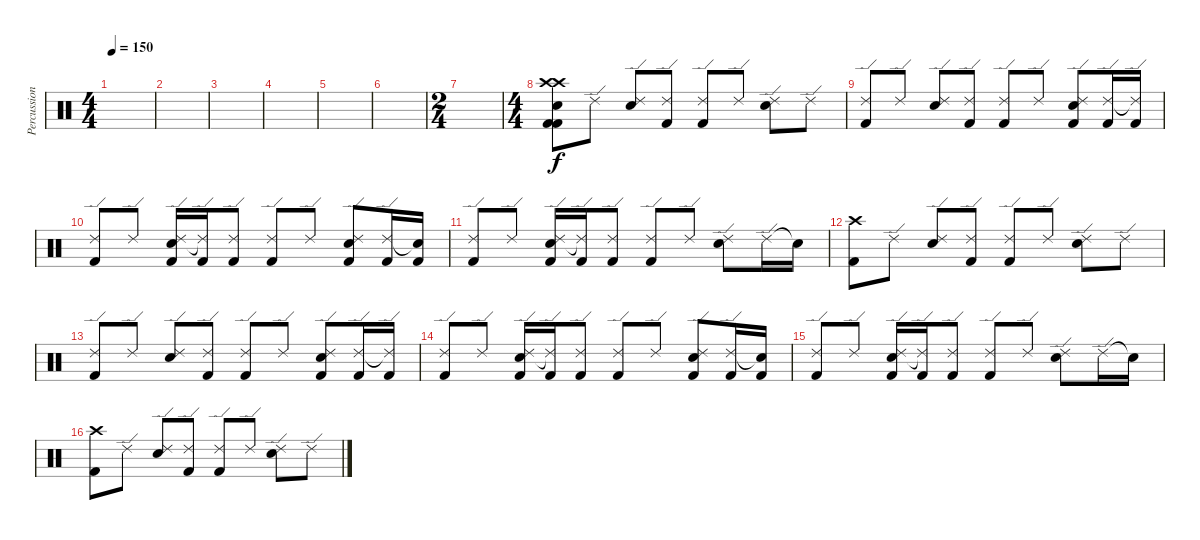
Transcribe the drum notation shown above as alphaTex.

\track ("Percussion" "Percussion") {instrument percussion}
\staff {score}
\articulation defaults
\ts (4 4)
\tempo 150
\clef neutral
\ks c
|
|
|
|
|
|
\ts (2 4)
|
\ts (4 4)
("Crash high (hit)" "Crash high (hit)" "Kick (hit) 2" "Kick (hit) 2" "Snare (hit) 2").8 "Ride (edge) 2".8 ("Ride (edge) 2" "Electric Snare (hit)").8 ("Ride (edge) 2" "Kick (hit) 2").8 ("Ride (edge) 2" "Kick (hit) 2").8 "Ride (edge) 2".8 ("Ride (edge) 2" "Electric Snare (hit)").8 "Ride (edge) 2".8 |
("Ride (edge) 2" "Kick (hit) 2").8 "Ride (edge) 2".8 ("Ride (edge) 2" "Electric Snare (hit)").8 ("Ride (edge) 2" "Kick (hit) 2").8 ("Ride (edge) 2" "Kick (hit) 2").8 "Ride (edge) 2".8 ("Electric Snare (hit)" "Ride (edge) 2" "Kick (hit) 2").8 ("Ride (edge) 2" "Kick (hit) 2").16 ("Ride (edge) 2"{t} "Kick (hit) 2").16 |
("Ride (edge) 2" "Kick (hit) 2").8 "Ride (edge) 2".8 ("Electric Snare (hit)" "Ride (edge) 2" "Kick (hit) 2").16 ("Ride (edge) 2"{t} "Kick (hit) 2").16 ("Ride (edge) 2" "Kick (hit) 2").8 ("Ride (edge) 2" "Kick (hit) 2").8 "Ride (edge) 2".8 ("Electric Snare (hit)" "Ride (edge) 2" "Kick (hit) 2").8 ("Ride (edge) 2" "Kick (hit) 2").16 ("Snare (hit)"{t} "Kick (hit) 2").16 |
("Ride (edge) 2" "Kick (hit) 2").8 "Ride (edge) 2".8 ("Electric Snare (hit)" "Ride (edge) 2" "Kick (hit) 2").16 ("Ride (edge) 2"{t} "Kick (hit) 2").16 ("Ride (edge) 2" "Kick (hit) 2").8 ("Ride (edge) 2" "Kick (hit) 2").8 "Ride (edge) 2".8 ("Electric Snare (hit)" "Ride (edge) 2").8 "Ride (edge) 2".16 "Snare (hit)"{t}.16 |
("Crash high (hit)" "Kick (hit) 2").8 "Ride (edge) 2".8 ("Ride (edge) 2" "Electric Snare (hit)").8 ("Ride (edge) 2" "Kick (hit) 2").8 ("Ride (edge) 2" "Kick (hit) 2").8 "Ride (edge) 2".8 ("Ride (edge) 2" "Electric Snare (hit)").8 "Ride (edge) 2".8 |
("Ride (edge) 2" "Kick (hit) 2").8 "Ride (edge) 2".8 ("Ride (edge) 2" "Electric Snare (hit)").8 ("Ride (edge) 2" "Kick (hit) 2").8 ("Ride (edge) 2" "Kick (hit) 2").8 "Ride (edge) 2".8 ("Electric Snare (hit)" "Ride (edge) 2" "Kick (hit) 2").8 ("Ride (edge) 2" "Kick (hit) 2").16 ("Ride (edge) 2"{t} "Kick (hit) 2").16 |
("Ride (edge) 2" "Kick (hit) 2").8 "Ride (edge) 2".8 ("Electric Snare (hit)" "Ride (edge) 2" "Kick (hit) 2").16 ("Ride (edge) 2"{t} "Kick (hit) 2").16 ("Ride (edge) 2" "Kick (hit) 2").8 ("Ride (edge) 2" "Kick (hit) 2").8 "Ride (edge) 2".8 ("Electric Snare (hit)" "Ride (edge) 2" "Kick (hit) 2").8 ("Ride (edge) 2" "Kick (hit) 2").16 ("Snare (hit)"{t} "Kick (hit) 2").16 |
("Ride (edge) 2" "Kick (hit) 2").8 "Ride (edge) 2".8 ("Electric Snare (hit)" "Ride (edge) 2" "Kick (hit) 2").16 ("Ride (edge) 2"{t} "Kick (hit) 2").16 ("Ride (edge) 2" "Kick (hit) 2").8 ("Ride (edge) 2" "Kick (hit) 2").8 "Ride (edge) 2".8 ("Electric Snare (hit)" "Ride (edge) 2").8 "Ride (edge) 2".16 "Snare (hit)"{t}.16 |
("Crash high (hit)" "Kick (hit) 2").8 "Ride (edge) 2".8 ("Ride (edge) 2" "Electric Snare (hit)").8 ("Ride (edge) 2" "Kick (hit) 2").8 ("Ride (edge) 2" "Kick (hit) 2").8 "Ride (edge) 2".8 ("Ride (edge) 2" "Electric Snare (hit)").8 "Ride (edge) 2".8
